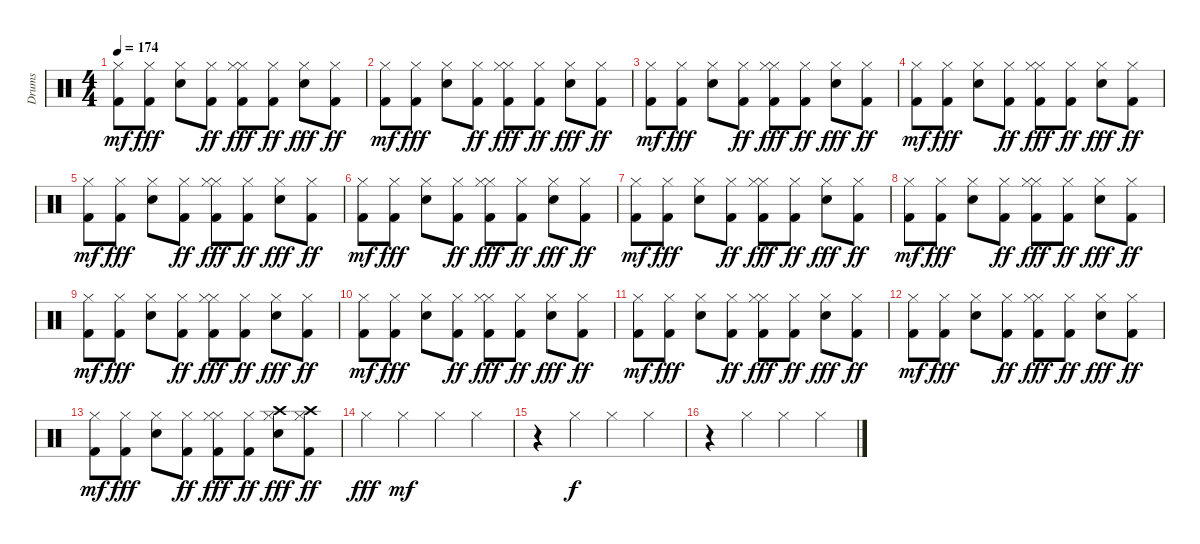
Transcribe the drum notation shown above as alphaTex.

\track ("Drums" "Drums") {instrument percussion}
\staff {score}
\articulation defaults
\ts (4 4)
\tempo 174
\clef neutral
\ks c
("Kick (hit) 2" "Hi-Hat (closed)").8{dy mf} ("Hi-Hat (closed)" "Kick (hit) 2").8{dy fff} ("Hi-Hat (closed)" "Snare (hit) 2").8 ("Hi-Hat (closed)" "Kick (hit) 2").8{dy ff} ("Hi-Hat (closed)" "Hi-Hat (closed)" "Kick (hit) 2").8{dy fff} ("Hi-Hat (closed)" "Kick (hit) 2").8{dy ff} ("Hi-Hat (closed)" "Snare (hit) 2").8{dy fff} ("Hi-Hat (closed)" "Kick (hit) 2").8{dy ff} |
("Kick (hit) 2" "Hi-Hat (closed)").8{dy mf} ("Hi-Hat (closed)" "Kick (hit) 2").8{dy fff} ("Hi-Hat (closed)" "Snare (hit) 2").8 ("Hi-Hat (closed)" "Kick (hit) 2").8{dy ff} ("Hi-Hat (closed)" "Hi-Hat (closed)" "Kick (hit) 2").8{dy fff} ("Hi-Hat (closed)" "Kick (hit) 2").8{dy ff} ("Hi-Hat (closed)" "Snare (hit) 2").8{dy fff} ("Hi-Hat (closed)" "Kick (hit) 2").8{dy ff} |
("Kick (hit) 2" "Hi-Hat (closed)").8{dy mf} ("Hi-Hat (closed)" "Kick (hit) 2").8{dy fff} ("Hi-Hat (closed)" "Snare (hit) 2").8 ("Hi-Hat (closed)" "Kick (hit) 2").8{dy ff} ("Hi-Hat (closed)" "Hi-Hat (closed)" "Kick (hit) 2").8{dy fff} ("Hi-Hat (closed)" "Kick (hit) 2").8{dy ff} ("Hi-Hat (closed)" "Snare (hit) 2").8{dy fff} ("Hi-Hat (closed)" "Kick (hit) 2").8{dy ff} |
("Kick (hit) 2" "Hi-Hat (closed)").8{dy mf} ("Hi-Hat (closed)" "Kick (hit) 2").8{dy fff} ("Hi-Hat (closed)" "Snare (hit) 2").8 ("Hi-Hat (closed)" "Kick (hit) 2").8{dy ff} ("Hi-Hat (closed)" "Hi-Hat (closed)" "Kick (hit) 2").8{dy fff} ("Hi-Hat (closed)" "Kick (hit) 2").8{dy ff} ("Hi-Hat (closed)" "Snare (hit) 2").8{dy fff} ("Hi-Hat (closed)" "Kick (hit) 2").8{dy ff} |
("Kick (hit) 2" "Hi-Hat (closed)").8{dy mf} ("Hi-Hat (closed)" "Kick (hit) 2").8{dy fff} ("Hi-Hat (closed)" "Snare (hit) 2").8 ("Hi-Hat (closed)" "Kick (hit) 2").8{dy ff} ("Hi-Hat (closed)" "Hi-Hat (closed)" "Kick (hit) 2").8{dy fff} ("Hi-Hat (closed)" "Kick (hit) 2").8{dy ff} ("Hi-Hat (closed)" "Snare (hit) 2").8{dy fff} ("Hi-Hat (closed)" "Kick (hit) 2").8{dy ff} |
("Kick (hit) 2" "Hi-Hat (closed)").8{dy mf} ("Hi-Hat (closed)" "Kick (hit) 2").8{dy fff} ("Hi-Hat (closed)" "Snare (hit) 2").8 ("Hi-Hat (closed)" "Kick (hit) 2").8{dy ff} ("Hi-Hat (closed)" "Hi-Hat (closed)" "Kick (hit) 2").8{dy fff} ("Hi-Hat (closed)" "Kick (hit) 2").8{dy ff} ("Hi-Hat (closed)" "Snare (hit) 2").8{dy fff} ("Hi-Hat (closed)" "Kick (hit) 2").8{dy ff} |
("Kick (hit) 2" "Hi-Hat (closed)").8{dy mf} ("Hi-Hat (closed)" "Kick (hit) 2").8{dy fff} ("Hi-Hat (closed)" "Snare (hit) 2").8 ("Hi-Hat (closed)" "Kick (hit) 2").8{dy ff} ("Hi-Hat (closed)" "Hi-Hat (closed)" "Kick (hit) 2").8{dy fff} ("Hi-Hat (closed)" "Kick (hit) 2").8{dy ff} ("Hi-Hat (closed)" "Snare (hit) 2").8{dy fff} ("Hi-Hat (closed)" "Kick (hit) 2").8{dy ff} |
("Kick (hit) 2" "Hi-Hat (closed)").8{dy mf} ("Hi-Hat (closed)" "Kick (hit) 2").8{dy fff} ("Hi-Hat (closed)" "Snare (hit) 2").8 ("Hi-Hat (closed)" "Kick (hit) 2").8{dy ff} ("Hi-Hat (closed)" "Hi-Hat (closed)" "Kick (hit) 2").8{dy fff} ("Hi-Hat (closed)" "Kick (hit) 2").8{dy ff} ("Hi-Hat (closed)" "Snare (hit) 2").8{dy fff} ("Hi-Hat (closed)" "Kick (hit) 2").8{dy ff} |
("Kick (hit) 2" "Hi-Hat (closed)").8{dy mf} ("Hi-Hat (closed)" "Kick (hit) 2").8{dy fff} ("Hi-Hat (closed)" "Snare (hit) 2").8 ("Hi-Hat (closed)" "Kick (hit) 2").8{dy ff} ("Hi-Hat (closed)" "Hi-Hat (closed)" "Kick (hit) 2").8{dy fff} ("Hi-Hat (closed)" "Kick (hit) 2").8{dy ff} ("Hi-Hat (closed)" "Snare (hit) 2").8{dy fff} ("Hi-Hat (closed)" "Kick (hit) 2").8{dy ff} |
("Kick (hit) 2" "Hi-Hat (closed)").8{dy mf} ("Hi-Hat (closed)" "Kick (hit) 2").8{dy fff} ("Hi-Hat (closed)" "Snare (hit) 2").8 ("Hi-Hat (closed)" "Kick (hit) 2").8{dy ff} ("Hi-Hat (closed)" "Hi-Hat (closed)" "Kick (hit) 2").8{dy fff} ("Hi-Hat (closed)" "Kick (hit) 2").8{dy ff} ("Hi-Hat (closed)" "Snare (hit) 2").8{dy fff} ("Hi-Hat (closed)" "Kick (hit) 2").8{dy ff} |
("Kick (hit) 2" "Hi-Hat (closed)").8{dy mf} ("Hi-Hat (closed)" "Kick (hit) 2").8{dy fff} ("Hi-Hat (closed)" "Snare (hit) 2").8 ("Hi-Hat (closed)" "Kick (hit) 2").8{dy ff} ("Hi-Hat (closed)" "Hi-Hat (closed)" "Kick (hit) 2").8{dy fff} ("Hi-Hat (closed)" "Kick (hit) 2").8{dy ff} ("Hi-Hat (closed)" "Snare (hit) 2").8{dy fff} ("Hi-Hat (closed)" "Kick (hit) 2").8{dy ff} |
("Kick (hit) 2" "Hi-Hat (closed)").8{dy mf} ("Hi-Hat (closed)" "Kick (hit) 2").8{dy fff} ("Hi-Hat (closed)" "Snare (hit) 2").8 ("Hi-Hat (closed)" "Kick (hit) 2").8{dy ff} ("Hi-Hat (closed)" "Hi-Hat (closed)" "Kick (hit) 2").8{dy fff} ("Hi-Hat (closed)" "Kick (hit) 2").8{dy ff} ("Hi-Hat (closed)" "Snare (hit) 2").8{dy fff} ("Hi-Hat (closed)" "Kick (hit) 2").8{dy ff} |
("Kick (hit) 2" "Hi-Hat (closed)").8{dy mf} ("Hi-Hat (closed)" "Kick (hit) 2").8{dy fff} ("Hi-Hat (closed)" "Snare (hit) 2").8 ("Hi-Hat (closed)" "Kick (hit) 2").8{dy ff} ("Hi-Hat (closed)" "Hi-Hat (closed)" "Kick (hit) 2").8{dy fff} ("Hi-Hat (closed)" "Kick (hit) 2").8{dy ff} ("Hi-Hat (closed)" "Snare (hit) 2" "Crash high (hit)").8{dy fff} ("Hi-Hat (closed)" "Kick (hit) 2" "Crash high (hit)").8{dy ff} |
"Hi-Hat (closed)".4{dy fff} "Hi-Hat (closed)".4{dy mf} "Hi-Hat (closed)".4 "Hi-Hat (closed)".4 |
r.4 "Hi-Hat (closed)".4{dy f} "Hi-Hat (closed)".4 "Hi-Hat (closed)".4 |
r.4 "Hi-Hat (closed)".4 "Hi-Hat (closed)".4 "Hi-Hat (closed)".4
